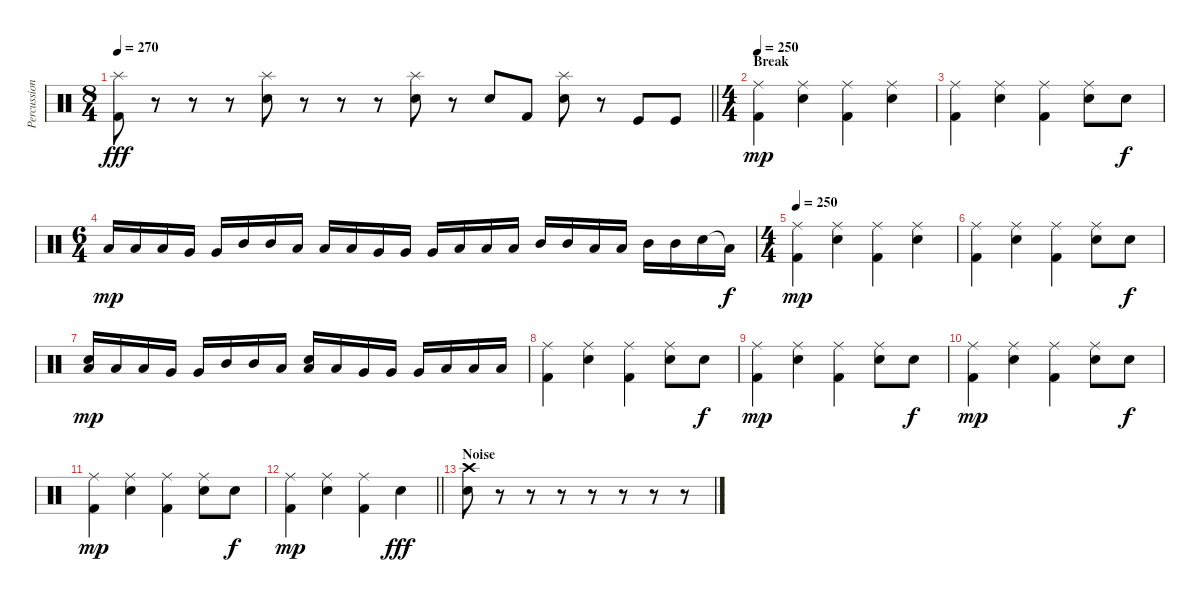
\track ("Percussion" "Percussion") {instrument percussion}
\staff {score}
\articulation defaults
\ts (8 4)
\tempo 270
\clef neutral
\barLineRight lightlight
\ks c
("Splash (hit)" "Kick (hit) 2").8{dy fff} r.8 r.8 r.8 ("Splash (hit)" "Electric Snare (hit)").8 r.8 r.8 r.8 ("Splash (hit)" "Electric Snare (hit)").8 r.8 "Electric Snare (hit)".8 "Kick (hit) 2".8 ("Splash (hit)" "Electric Snare (hit)").8 r.8 "Kick (hit)".8 "Kick (hit)".8 |
\ts (4 4)
\section ("" "Break")
\tempo 250
("Ride (middle)" "Kick (hit) 2").4{dy mp} ("Ride (middle)" "Electric Snare (hit)").4 ("Ride (middle)" "Kick (hit) 2").4 ("Ride (middle)" "Electric Snare (hit)").4 |
("Ride (middle)" "Kick (hit) 2").4 ("Ride (middle)" "Electric Snare (hit)").4 ("Ride (middle)" "Kick (hit) 2").4 ("Ride (middle)" "Electric Snare (hit)").8 "Electric Snare (hit)".8{dy f} |
\ts (6 4)
"Low Floor Tom (hit)".16{dy mp} "Low Floor Tom (hit)".16 "Low Floor Tom (hit)".16 "Very Low Tom (hit)".16 "Very Low Tom (hit)".16 "Mid Tom (hit)".16 "Mid Tom (hit)".16 "Low Floor Tom (hit)".16 "Low Floor Tom (hit)".16 "Low Floor Tom (hit)".16 "Very Low Tom (hit)".16 "Very Low Tom (hit)".16 "Very Low Tom (hit)".16 "Low Tom (hit)".16 "Low Tom (hit)".16 "Low Tom (hit)".16 "Mid Tom (hit)".16 "Mid Tom (hit)".16 "Low Tom (hit)".16 "Low Tom (hit)".16 "Mid Tom (hit)".16 "Mid Tom (hit)".16 "Electric Snare (hit)".16 "Low Tom (hit)"{t}.16{dy f} |
\ts (4 4)
\tempo 250
("Ride (middle)" "Kick (hit) 2").4{dy mp} ("Ride (middle)" "Electric Snare (hit)").4 ("Ride (middle)" "Kick (hit) 2").4 ("Ride (middle)" "Electric Snare (hit)").4 |
("Ride (middle)" "Kick (hit) 2").4 ("Ride (middle)" "Electric Snare (hit)").4 ("Ride (middle)" "Kick (hit) 2").4 ("Ride (middle)" "Electric Snare (hit)").8 "Electric Snare (hit)".8{dy f} |
("Electric Snare (hit)" "Low Floor Tom (hit)").16{dy mp} "Low Floor Tom (hit)".16 "Low Floor Tom (hit)".16 "Very Low Tom (hit)".16 "Very Low Tom (hit)".16 "Mid Tom (hit)".16 "Mid Tom (hit)".16 "Low Floor Tom (hit)".16 ("Electric Snare (hit)" "Low Floor Tom (hit)").16 "Low Floor Tom (hit)".16 "Very Low Tom (hit)".16 "Very Low Tom (hit)".16 "Very Low Tom (hit)".16 "Low Tom (hit)".16 "Low Tom (hit)".16 "Low Tom (hit)".16 |
("Ride (middle)" "Kick (hit) 2").4 ("Ride (middle)" "Electric Snare (hit)").4 ("Ride (middle)" "Kick (hit) 2").4 ("Ride (middle)" "Electric Snare (hit)").8 "Electric Snare (hit)".8{dy f} |
("Ride (middle)" "Kick (hit) 2").4{dy mp} ("Ride (middle)" "Electric Snare (hit)").4 ("Ride (middle)" "Kick (hit) 2").4 ("Ride (middle)" "Electric Snare (hit)").8 "Electric Snare (hit)".8{dy f} |
("Ride (middle)" "Kick (hit) 2").4{dy mp} ("Ride (middle)" "Electric Snare (hit)").4 ("Ride (middle)" "Kick (hit) 2").4 ("Ride (middle)" "Electric Snare (hit)").8 "Electric Snare (hit)".8{dy f} |
("Ride (middle)" "Kick (hit) 2").4{dy mp} ("Ride (middle)" "Electric Snare (hit)").4 ("Ride (middle)" "Kick (hit) 2").4 ("Ride (middle)" "Electric Snare (hit)").8 "Electric Snare (hit)".8{dy f} |
\barLineRight lightlight
("Ride (middle)" "Kick (hit) 2").4{dy mp} ("Ride (middle)" "Electric Snare (hit)").4 ("Ride (middle)" "Kick (hit) 2").4 "Electric Snare (hit)".4{dy fff} |
\section ("" "Noise")
("Crash high (hit)" "Electric Snare (hit)").8 r.8 r.8 r.8 r.8 r.8 r.8 r.8
